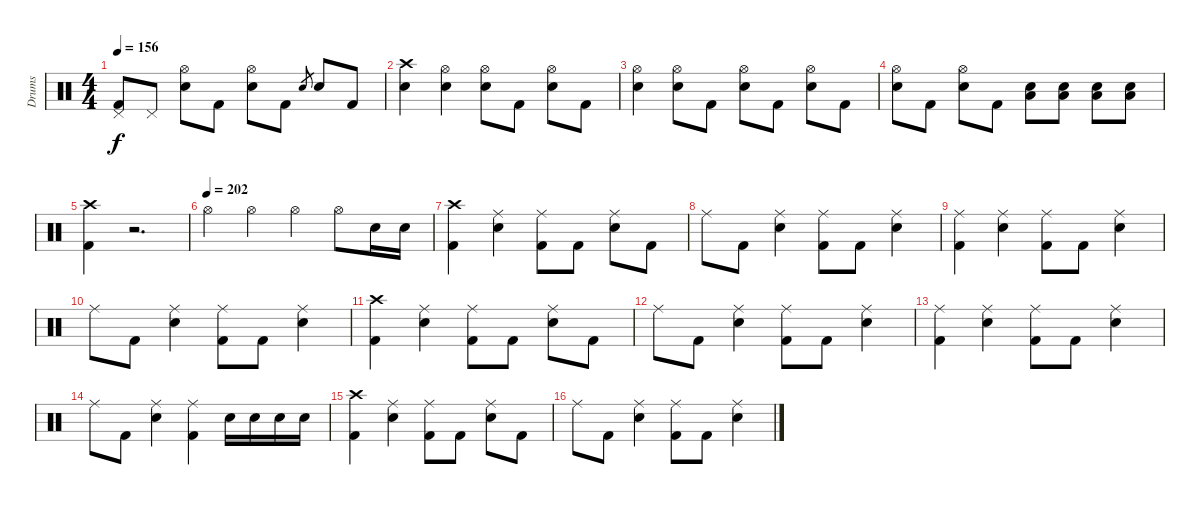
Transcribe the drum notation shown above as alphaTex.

\track ("Drums" "Drums") {instrument percussion}
\staff {score}
\articulation defaults
\ts (4 4)
\tempo 156
\clef neutral
\ks c
("Pedal Hi-Hat (hit)" "Kick (hit) 2").8{dy f} "Pedal Hi-Hat (hit)".8 ("Hi-Hat (open)" "Electric Snare (hit)").8 "Kick (hit) 2".8 ("Hi-Hat (open)" "Electric Snare (hit)").8 "Kick (hit) 2".8 "Electric Snare (hit)".8{gr} "Electric Snare (hit)".8 "Kick (hit) 2".8 |
("Crash high (hit)" "Electric Snare (hit)").4 ("Hi-Hat (open)" "Electric Snare (hit)").4 ("Hi-Hat (open)" "Electric Snare (hit)").8 "Kick (hit) 2".8 ("Hi-Hat (open)" "Electric Snare (hit)").8 "Kick (hit) 2".8 |
("Hi-Hat (open)" "Electric Snare (hit)").4 ("Hi-Hat (open)" "Electric Snare (hit)").8 "Kick (hit) 2".8 ("Hi-Hat (open)" "Electric Snare (hit)").8 "Kick (hit) 2".8 ("Hi-Hat (open)" "Electric Snare (hit)").8 "Kick (hit) 2".8 |
("Hi-Hat (open)" "Electric Snare (hit)").8 "Kick (hit) 2".8 ("Hi-Hat (open)" "Electric Snare (hit)").8 "Kick (hit) 2".8 ("Low Tom (hit)" "Electric Snare (hit)").8 ("Low Tom (hit)" "Electric Snare (hit)").8 ("Low Tom (hit)" "Electric Snare (hit)").8 ("Low Tom (hit)" "Electric Snare (hit)").8 |
("Crash high (hit)" "Kick (hit) 2").4 r.2{d} |
\tempo (202)
"Hi-Hat (open)".4 "Hi-Hat (open)".4 "Hi-Hat (open)".4 "Hi-Hat (open)".8 "Electric Snare (hit)".16 "Electric Snare (hit)".16 |
("Crash high (hit)" "Kick (hit) 2").4 ("Ride (middle)" "Electric Snare (hit)").4 ("Ride (middle)" "Kick (hit) 2").8 "Kick (hit) 2".8 ("Ride (middle)" "Electric Snare (hit)").8 "Kick (hit) 2".8 |
"Ride (middle)".8 "Kick (hit) 2".8 ("Ride (middle)" "Electric Snare (hit)").4 ("Ride (middle)" "Kick (hit) 2").8 "Kick (hit) 2".8 ("Ride (middle)" "Electric Snare (hit)").4 |
("Ride (middle)" "Kick (hit) 2").4 ("Ride (middle)" "Electric Snare (hit)").4 ("Ride (middle)" "Kick (hit) 2").8 "Kick (hit) 2".8 ("Ride (middle)" "Electric Snare (hit)").4 |
"Ride (middle)".8 "Kick (hit) 2".8 ("Ride (middle)" "Electric Snare (hit)").4 ("Ride (middle)" "Kick (hit) 2").8 "Kick (hit) 2".8 ("Ride (middle)" "Electric Snare (hit)").4 |
("Crash high (hit)" "Kick (hit) 2").4 ("Ride (middle)" "Electric Snare (hit)").4 ("Ride (middle)" "Kick (hit) 2").8 "Kick (hit) 2".8 ("Ride (middle)" "Electric Snare (hit)").8 "Kick (hit) 2".8 |
"Ride (middle)".8 "Kick (hit) 2".8 ("Ride (middle)" "Electric Snare (hit)").4 ("Ride (middle)" "Kick (hit) 2").8 "Kick (hit) 2".8 ("Ride (middle)" "Electric Snare (hit)").4 |
("Ride (middle)" "Kick (hit) 2").4 ("Ride (middle)" "Electric Snare (hit)").4 ("Ride (middle)" "Kick (hit) 2").8 "Kick (hit) 2".8 ("Ride (middle)" "Electric Snare (hit)").4 |
"Ride (middle)".8 "Kick (hit) 2".8 ("Ride (middle)" "Electric Snare (hit)").4 ("Ride (middle)" "Kick (hit) 2").4 "Electric Snare (hit)".16 "Electric Snare (hit)".16 "Electric Snare (hit)".16 "Electric Snare (hit)".16 |
("Crash high (hit)" "Kick (hit) 2").4 ("Ride (middle)" "Electric Snare (hit)").4 ("Ride (middle)" "Kick (hit) 2").8 "Kick (hit) 2".8 ("Ride (middle)" "Electric Snare (hit)").8 "Kick (hit) 2".8 |
"Ride (middle)".8 "Kick (hit) 2".8 ("Ride (middle)" "Electric Snare (hit)").4 ("Ride (middle)" "Kick (hit) 2").8 "Kick (hit) 2".8 ("Ride (middle)" "Electric Snare (hit)").4
